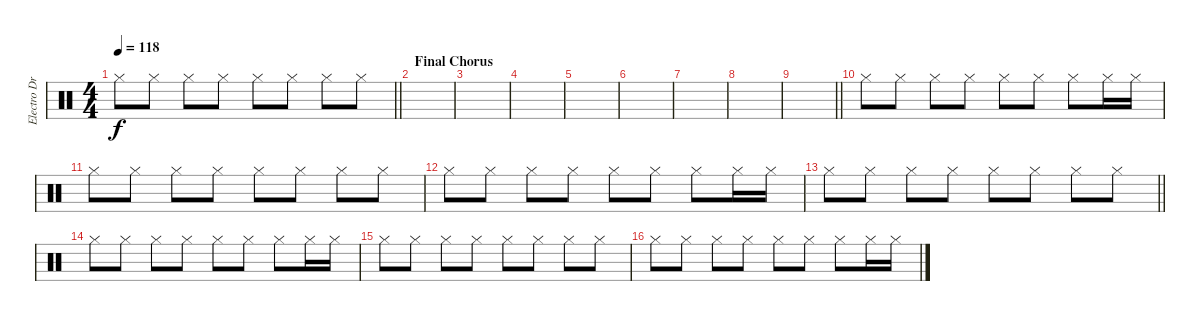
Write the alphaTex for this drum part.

\track ("Electro Drums" "Electro Dr") {instrument percussion}
\staff {score}
\articulation defaults
\ts (4 4)
\tempo 118
\clef neutral
\barLineRight lightlight
\ks c "Hi-Hat (closed)".8{dy f} "Hi-Hat (closed)".8 "Hi-Hat (closed)".8 "Hi-Hat (closed)".8 "Hi-Hat (closed)".8 "Hi-Hat (closed)".8 "Hi-Hat (closed)".8 "Hi-Hat (closed)".8
|
\section ("" "Final Chorus")
|
|
|
|
|
|
|
\barLineRight lightlight
|
"Hi-Hat (closed)".8{volume 3} "Hi-Hat (closed)".8 "Hi-Hat (closed)".8 "Hi-Hat (closed)".8 "Hi-Hat (closed)".8 "Hi-Hat (closed)".8 "Hi-Hat (closed)".8 "Hi-Hat (closed)".16 "Hi-Hat (closed)".16 |
"Hi-Hat (closed)".8 "Hi-Hat (closed)".8 "Hi-Hat (closed)".8 "Hi-Hat (closed)".8 "Hi-Hat (closed)".8 "Hi-Hat (closed)".8 "Hi-Hat (closed)".8 "Hi-Hat (closed)".8 |
"Hi-Hat (closed)".8 "Hi-Hat (closed)".8 "Hi-Hat (closed)".8 "Hi-Hat (closed)".8 "Hi-Hat (closed)".8 "Hi-Hat (closed)".8 "Hi-Hat (closed)".8 "Hi-Hat (closed)".16 "Hi-Hat (closed)".16 |
\barLineRight lightlight "Hi-Hat (closed)".8 "Hi-Hat (closed)".8 "Hi-Hat (closed)".8 "Hi-Hat (closed)".8 "Hi-Hat (closed)".8 "Hi-Hat (closed)".8 "Hi-Hat (closed)".8 "Hi-Hat (closed)".8
|
"Hi-Hat (closed)".8 "Hi-Hat (closed)".8 "Hi-Hat (closed)".8 "Hi-Hat (closed)".8 "Hi-Hat (closed)".8 "Hi-Hat (closed)".8 "Hi-Hat (closed)".8 "Hi-Hat (closed)".16 "Hi-Hat (closed)".16 |
"Hi-Hat (closed)".8 "Hi-Hat (closed)".8 "Hi-Hat (closed)".8 "Hi-Hat (closed)".8 "Hi-Hat (closed)".8 "Hi-Hat (closed)".8 "Hi-Hat (closed)".8 "Hi-Hat (closed)".8 |
"Hi-Hat (closed)".8 "Hi-Hat (closed)".8 "Hi-Hat (closed)".8 "Hi-Hat (closed)".8 "Hi-Hat (closed)".8 "Hi-Hat (closed)".8 "Hi-Hat (closed)".8 "Hi-Hat (closed)".16 "Hi-Hat (closed)".16
